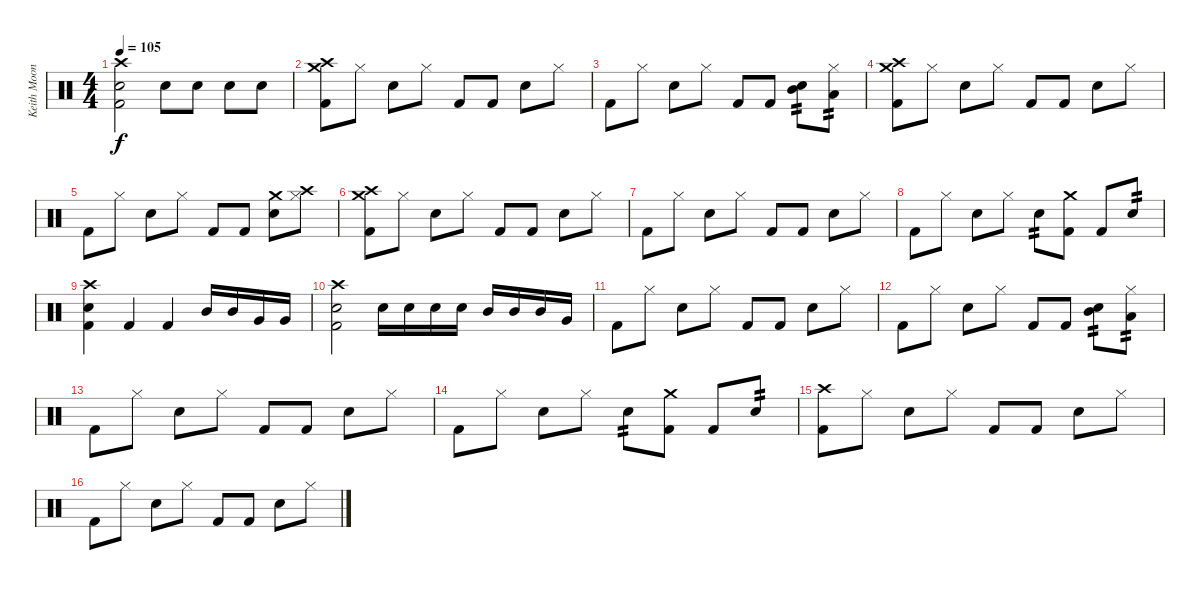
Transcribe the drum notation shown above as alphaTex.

\track ("Keith Moon" "Keith Moon") {instrument percussion}
\staff {score}
\articulation defaults
\ts (4 4)
\tempo 105
\clef neutral
\ks c
("Crash high (hit)" "Electric Snare (hit)" "Kick (hit) 2").2{dy f} "Electric Snare (hit)".8 "Electric Snare (hit)".8 "Electric Snare (hit)".8 "Electric Snare (hit)".8 |
("Crash high (hit)" "Crash medium (hit)" "Kick (hit) 2").8 "Hi-Hat (closed)".8 "Electric Snare (hit)".8 "Hi-Hat (closed)".8 "Kick (hit) 2".8 "Kick (hit) 2".8 "Electric Snare (hit)".8 "Hi-Hat (closed)".8 |
"Kick (hit) 2".8 "Hi-Hat (closed)".8 "Electric Snare (hit)".8 "Hi-Hat (closed)".8 "Kick (hit) 2".8 "Kick (hit) 2".8 ("Electric Snare (hit)" "Mid Tom (hit)").8{tp 2} ("Hi-Hat (closed)" "Low Floor Tom (hit)").8{tp 2} |
("Crash high (hit)" "Crash medium (hit)" "Kick (hit) 2").8 "Hi-Hat (closed)".8 "Electric Snare (hit)".8 "Hi-Hat (closed)".8 "Kick (hit) 2".8 "Kick (hit) 2".8 "Electric Snare (hit)".8 "Hi-Hat (closed)".8 |
"Kick (hit) 2".8 "Hi-Hat (closed)".8 "Electric Snare (hit)".8 "Hi-Hat (closed)".8 "Kick (hit) 2".8 "Kick (hit) 2".8 ("Electric Snare (hit)" "Crash medium (hit)").8 ("Hi-Hat (closed)" "Crash high (hit)").8 |
("Crash high (hit)" "Crash medium (hit)" "Kick (hit) 2").8 "Hi-Hat (closed)".8 "Electric Snare (hit)".8 "Hi-Hat (closed)".8 "Kick (hit) 2".8 "Kick (hit) 2".8 "Electric Snare (hit)".8 "Hi-Hat (closed)".8 |
"Kick (hit) 2".8 "Hi-Hat (closed)".8 "Electric Snare (hit)".8 "Hi-Hat (closed)".8 "Kick (hit) 2".8 "Kick (hit) 2".8 "Electric Snare (hit)".8 "Hi-Hat (closed)".8 |
"Kick (hit) 2".8 "Hi-Hat (closed)".8 "Electric Snare (hit)".8 "Hi-Hat (closed)".8 "Electric Snare (hit)".8{tp 2} ("Crash medium (hit)" "Kick (hit) 2").8 "Kick (hit) 2".8 "Electric Snare (hit)".8{tp 2} |
("Crash high (hit)" "Electric Snare (hit)" "Kick (hit) 2").4 "Kick (hit) 2".4 "Kick (hit) 2".4 "Mid Tom (hit)".16 "Mid Tom (hit)".16 "Very Low Tom (hit)".16 "Very Low Tom (hit)".16 |
("Crash high (hit)" "Electric Snare (hit)" "Kick (hit) 2").2 "Electric Snare (hit)".16 "Electric Snare (hit)".16 "Electric Snare (hit)".16 "Electric Snare (hit)".16 "Mid Tom (hit)".16 "Mid Tom (hit)".16 "Mid Tom (hit)".16 "Very Low Tom (hit)".16 |
"Kick (hit) 2".8 "Hi-Hat (closed)".8 "Electric Snare (hit)".8 "Hi-Hat (closed)".8 "Kick (hit) 2".8 "Kick (hit) 2".8 "Electric Snare (hit)".8 "Hi-Hat (closed)".8 |
"Kick (hit) 2".8 "Hi-Hat (closed)".8 "Electric Snare (hit)".8 "Hi-Hat (closed)".8 "Kick (hit) 2".8 "Kick (hit) 2".8 ("Electric Snare (hit)" "Mid Tom (hit)").8{tp 2} ("Hi-Hat (closed)" "Low Floor Tom (hit)").8{tp 2} |
"Kick (hit) 2".8 "Hi-Hat (closed)".8 "Electric Snare (hit)".8 "Hi-Hat (closed)".8 "Kick (hit) 2".8 "Kick (hit) 2".8 "Electric Snare (hit)".8 "Hi-Hat (closed)".8 |
"Kick (hit) 2".8 "Hi-Hat (closed)".8 "Electric Snare (hit)".8 "Hi-Hat (closed)".8 "Electric Snare (hit)".8{tp 2} ("Crash medium (hit)" "Kick (hit) 2").8 "Kick (hit) 2".8 "Electric Snare (hit)".8{tp 2} |
("Crash high (hit)" "Kick (hit) 2").8 "Hi-Hat (closed)".8 "Electric Snare (hit)".8 "Hi-Hat (closed)".8 "Kick (hit) 2".8 "Kick (hit) 2".8 "Electric Snare (hit)".8 "Hi-Hat (closed)".8 |
"Kick (hit) 2".8 "Hi-Hat (closed)".8 "Electric Snare (hit)".8 "Hi-Hat (closed)".8 "Kick (hit) 2".8 "Kick (hit) 2".8 "Electric Snare (hit)".8 "Hi-Hat (closed)".8
